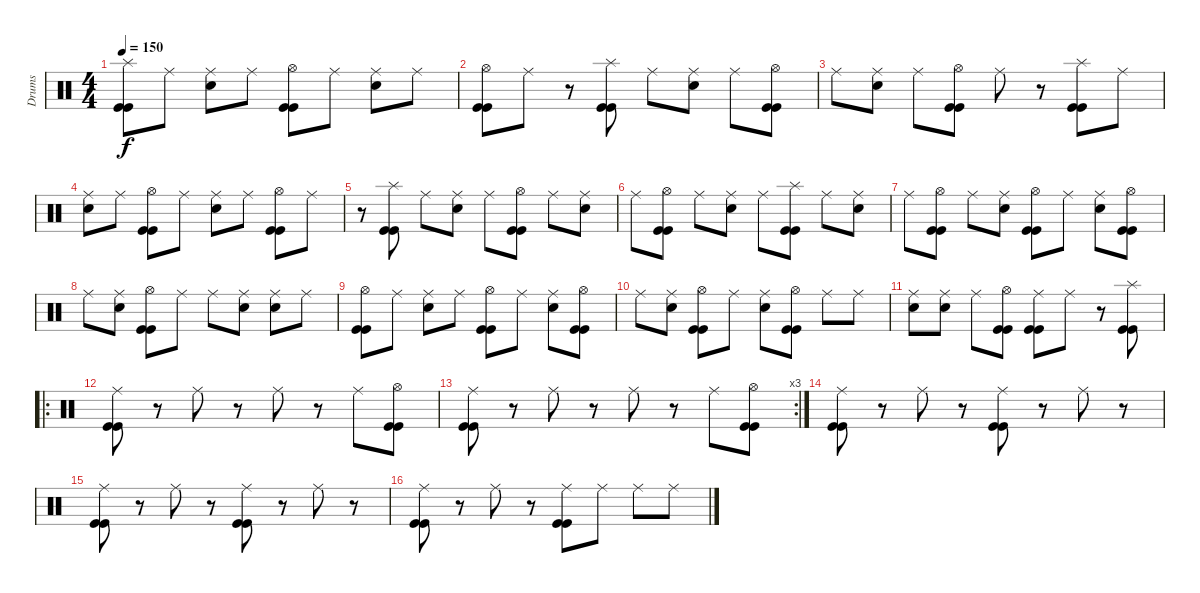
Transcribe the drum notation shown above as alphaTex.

\track ("Drums" "Drums") {instrument percussion}
\staff {score}
\articulation defaults
\ts (4 4)
\tempo 150
\clef neutral
\ks c
("Splash (hit)" "Kick (hit)" "Kick (hit)").8{dy f} "Ride (middle)".8 ("Ride (middle)" "Snare (hit) 2").8 "Ride (middle)".8 ("Hi-Hat (open)" "Kick (hit)" "Kick (hit)").8 "Ride (middle)".8 ("Ride (middle)" "Snare (hit) 2").8 "Ride (middle)".8 |
("Hi-Hat (open)" "Kick (hit)" "Kick (hit)").8 "Ride (middle)".8 r.8 ("Splash (hit)" "Kick (hit)" "Kick (hit)").8 "Ride (middle)".8 ("Ride (middle)" "Snare (hit) 2").8 "Ride (middle)".8 ("Hi-Hat (open)" "Kick (hit)" "Kick (hit)").8 |
"Ride (middle)".8 ("Ride (middle)" "Snare (hit) 2").8 "Ride (middle)".8 ("Hi-Hat (open)" "Kick (hit)" "Kick (hit)").8 "Ride (middle)".8 r.8 ("Splash (hit)" "Kick (hit)" "Kick (hit)").8 "Ride (middle)".8 |
("Ride (middle)" "Snare (hit) 2").8 "Ride (middle)".8 ("Hi-Hat (open)" "Kick (hit)" "Kick (hit)").8 "Ride (middle)".8 ("Ride (middle)" "Snare (hit) 2").8 "Ride (middle)".8 ("Hi-Hat (open)" "Kick (hit)" "Kick (hit)").8 "Ride (middle)".8 |
r.8 ("Splash (hit)" "Kick (hit)" "Kick (hit)").8 "Ride (middle)".8 ("Ride (middle)" "Snare (hit) 2").8 "Ride (middle)".8 ("Hi-Hat (open)" "Kick (hit)" "Kick (hit)").8 "Ride (middle)".8 ("Ride (middle)" "Snare (hit) 2").8 |
"Ride (middle)".8 ("Hi-Hat (open)" "Kick (hit)" "Kick (hit)").8 "Ride (middle)".8 ("Ride (middle)" "Snare (hit) 2").8 "Ride (middle)".8 ("Splash (hit)" "Kick (hit)" "Kick (hit)").8 "Ride (middle)".8 ("Ride (middle)" "Snare (hit) 2").8 |
"Ride (middle)".8 ("Hi-Hat (open)" "Kick (hit)" "Kick (hit)").8 "Ride (middle)".8 ("Ride (middle)" "Snare (hit) 2").8 ("Hi-Hat (open)" "Kick (hit)" "Kick (hit)").8 "Ride (middle)".8 ("Ride (middle)" "Snare (hit) 2").8 ("Hi-Hat (open)" "Kick (hit)" "Kick (hit)").8 |
"Ride (middle)".8 ("Ride (middle)" "Snare (hit) 2").8 ("Hi-Hat (open)" "Kick (hit)" "Kick (hit)").8 "Ride (middle)".8 "Ride (middle)".8 ("Ride (middle)" "Snare (hit) 2").8 ("Ride (middle)" "Snare (hit) 2").8 "Ride (middle)".8 |
("Hi-Hat (open)" "Kick (hit)" "Kick (hit)").8 "Ride (middle)".8 ("Ride (middle)" "Snare (hit) 2").8 "Ride (middle)".8 ("Hi-Hat (open)" "Kick (hit)" "Kick (hit)").8 "Ride (middle)".8 ("Ride (middle)" "Snare (hit) 2").8 ("Hi-Hat (open)" "Kick (hit)" "Kick (hit)").8 |
"Ride (middle)".8 ("Ride (middle)" "Snare (hit) 2").8 ("Hi-Hat (open)" "Kick (hit)" "Kick (hit)").8 "Ride (middle)".8 ("Ride (middle)" "Snare (hit) 2").8 ("Hi-Hat (open)" "Kick (hit)" "Kick (hit)").8 "Ride (middle)".8 "Ride (middle)".8 |
("Ride (middle)" "Snare (hit) 2").8 ("Ride (middle)" "Snare (hit) 2").8 "Ride (middle)".8 ("Hi-Hat (open)" "Kick (hit)" "Kick (hit)").8 ("Ride (middle)" "Kick (hit)" "Kick (hit)").8 "Ride (middle)".8 r.8 ("Splash (hit)" "Kick (hit)" "Kick (hit)").8 |
\ro
("Ride (middle)" "Kick (hit)" "Kick (hit)").8 r.8 "Ride (middle)".8 r.8 "Ride (middle)".8 r.8 "Ride (middle)".8 ("Hi-Hat (open)" "Kick (hit)" "Kick (hit)").8 |
\rc 3
("Ride (middle)" "Kick (hit)" "Kick (hit)").8 r.8 "Ride (middle)".8 r.8 "Ride (middle)".8 r.8 "Ride (middle)".8 ("Hi-Hat (open)" "Kick (hit)" "Kick (hit)").8 |
("Ride (middle)" "Kick (hit)" "Kick (hit)").8 r.8 "Ride (middle)".8 r.8 ("Ride (middle)" "Kick (hit)" "Kick (hit)").8 r.8 "Ride (middle)".8 r.8 |
("Ride (middle)" "Kick (hit)" "Kick (hit)").8 r.8 "Ride (middle)".8 r.8 ("Ride (middle)" "Kick (hit)" "Kick (hit)").8 r.8 "Ride (middle)".8 r.8 |
("Ride (middle)" "Kick (hit)" "Kick (hit)").8 r.8 "Ride (middle)".8 r.8 ("Ride (middle)" "Kick (hit)" "Kick (hit)").8 "Ride (middle)".8 "Ride (middle)".8 "Ride (middle)".8
